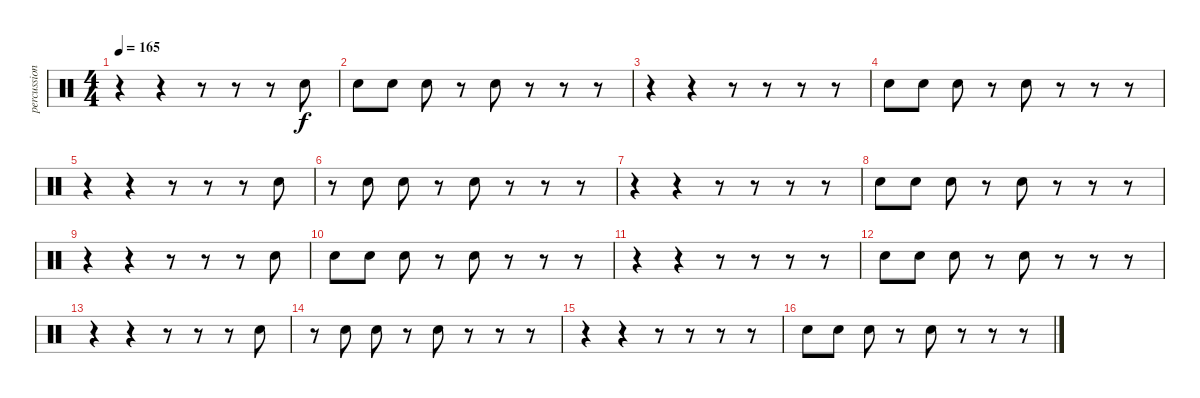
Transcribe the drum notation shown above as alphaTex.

\track ("percussion" "percussion") {instrument percussion}
\staff {score}
\articulation defaults
\ts (4 4)
\tempo 165
\clef neutral
\ks c
r.4{dy f} r.4 r.8 r.8 r.8 "Hand Clap (hit)".8 |
"Hand Clap (hit)".8 "Hand Clap (hit)".8 "Hand Clap (hit)".8 r.8 "Hand Clap (hit)".8 r.8 r.8 r.8 |
r.4 r.4 r.8 r.8 r.8 r.8 |
"Hand Clap (hit)".8 "Hand Clap (hit)".8 "Hand Clap (hit)".8 r.8 "Hand Clap (hit)".8 r.8 r.8 r.8 |
r.4 r.4 r.8 r.8 r.8 "Hand Clap (hit)".8 |
r.8 "Hand Clap (hit)".8 "Hand Clap (hit)".8 r.8 "Hand Clap (hit)".8 r.8 r.8 r.8 |
r.4 r.4 r.8 r.8 r.8 r.8 |
"Hand Clap (hit)".8 "Hand Clap (hit)".8 "Hand Clap (hit)".8 r.8 "Hand Clap (hit)".8 r.8 r.8 r.8 |
r.4 r.4 r.8 r.8 r.8 "Hand Clap (hit)".8 |
"Hand Clap (hit)".8 "Hand Clap (hit)".8 "Hand Clap (hit)".8 r.8 "Hand Clap (hit)".8 r.8 r.8 r.8 |
r.4 r.4 r.8 r.8 r.8 r.8 |
"Hand Clap (hit)".8 "Hand Clap (hit)".8 "Hand Clap (hit)".8 r.8 "Hand Clap (hit)".8 r.8 r.8 r.8 |
r.4 r.4 r.8 r.8 r.8 "Hand Clap (hit)".8 |
r.8 "Hand Clap (hit)".8 "Hand Clap (hit)".8 r.8 "Hand Clap (hit)".8 r.8 r.8 r.8 |
r.4 r.4 r.8 r.8 r.8 r.8 |
"Hand Clap (hit)".8 "Hand Clap (hit)".8 "Hand Clap (hit)".8 r.8 "Hand Clap (hit)".8 r.8 r.8 r.8
